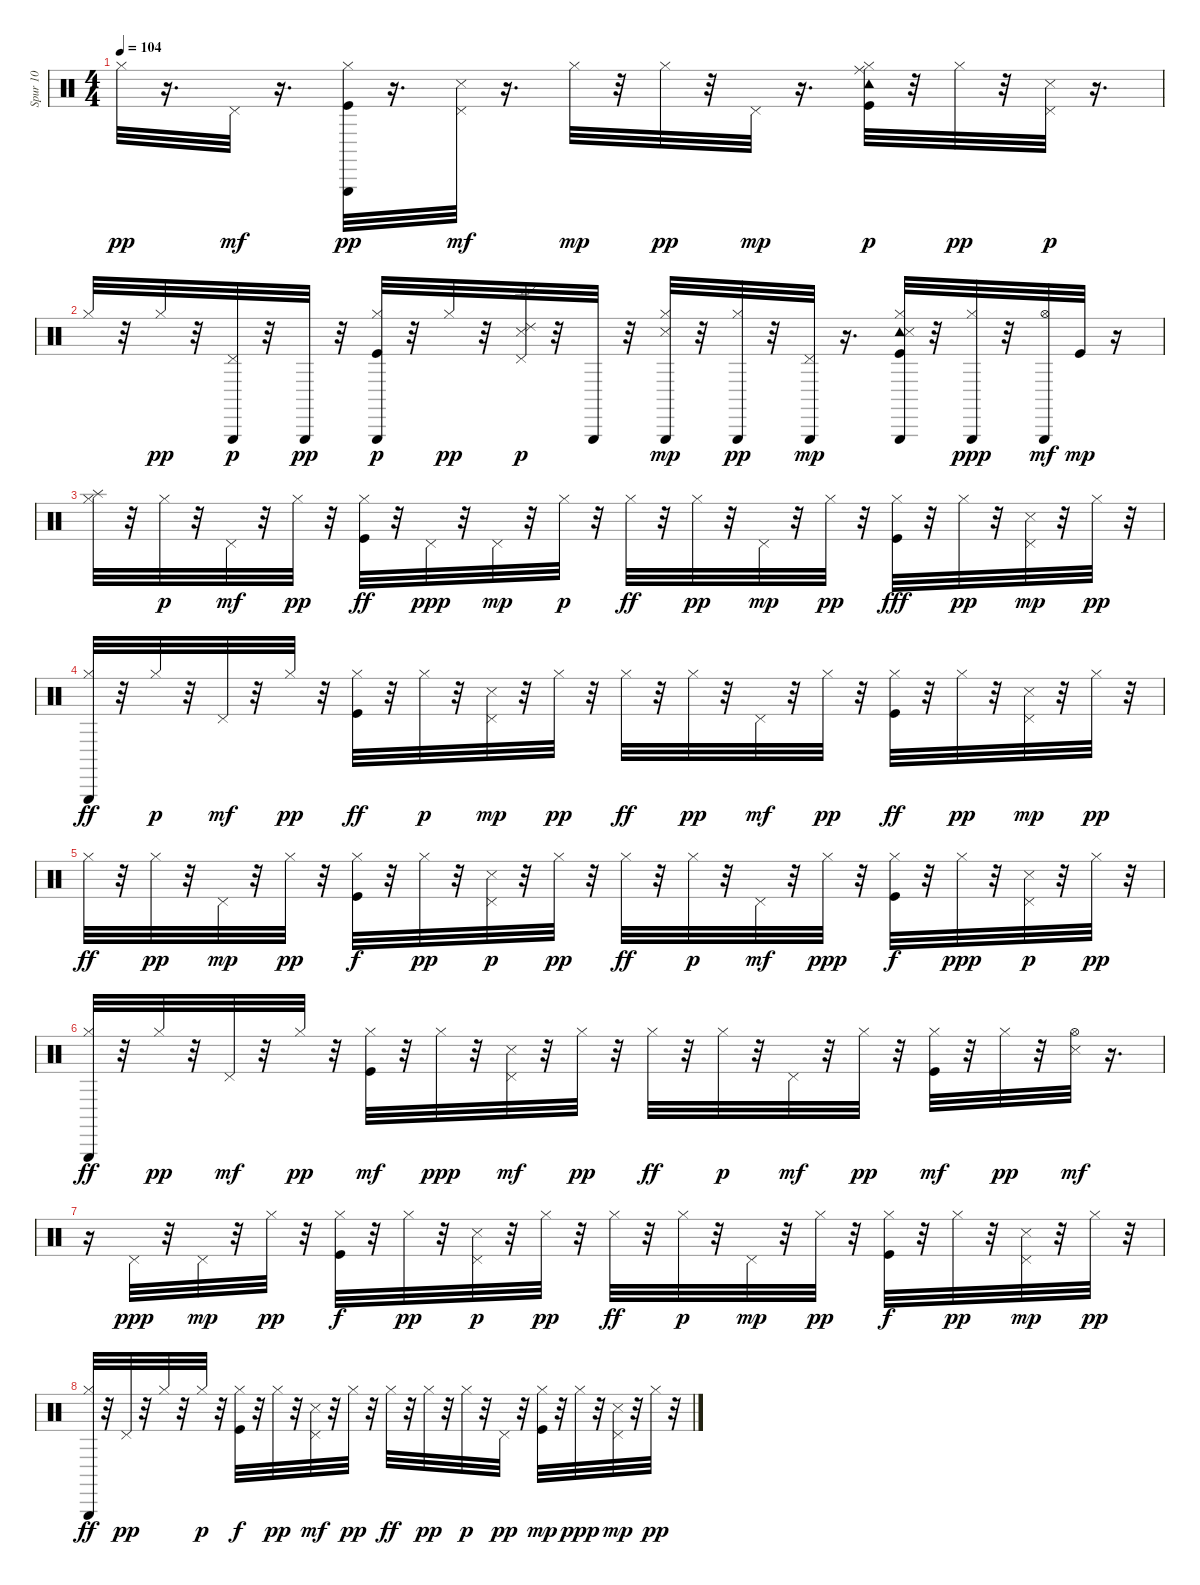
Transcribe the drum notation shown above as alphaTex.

\track ("Spur 10" "Spur 10") {instrument percussion}
\staff {score}
\articulation defaults
\ts (4 4)
\tempo 104
\clef neutral
\ks c "Hi-Hat (closed)".32{dy pp}
r.16{d} "Pedal Hi-Hat (hit)".32{dy mf} r.16{d} ("Triangle (hit)" "Kick (hit)" "Hi-Hat (closed)").32{dy pp} r.16{d} ("Snare (side stick) 3" "Pedal Hi-Hat (hit)").32{dy mf} r.16{d} "Hi-Hat (closed)".32{dy mp} r.32 "Hi-Hat (closed)".32{dy pp} r.32 "Pedal Hi-Hat (hit)".32{dy mp} r.16{d} ("Ride (middle)" "Tambourine (hit)" "Kick (hit)" "Hi-Hat (closed)").32{dy p} r.32 "Hi-Hat (closed)".32{dy pp} r.32 ("Pedal Hi-Hat (hit)" "Snare (side stick) 3").32{dy p} r.16{d} |
"Hi-Hat (closed)".32 r.32 "Hi-Hat (closed)".32{dy pp} r.32 ("Pedal Hi-Hat (hit)" "Triangle (hit)").32{dy p} r.32 "Triangle (hit)".32{dy pp} r.32 ("Kick (hit)" "Hi-Hat (closed)" "Triangle (hit)").32{dy p} r.32 "Hi-Hat (closed)".32{dy pp} r.32 ("Snare (side stick) 3" "Pedal Hi-Hat (hit)" "Ride (edge) 2").32{dy p} r.32 "Triangle (hit)".32 r.32 ("Triangle (hit)" "Snare (side stick) 3" "Hi-Hat (closed)").32{dy mp} r.32 ("Hi-Hat (closed)" "Triangle (hit)").32{dy pp} r.32 ("Pedal Hi-Hat (hit)" "Triangle (hit)").32{dy mp} r.16{d} ("Tambourine (hit)" "Snare (side stick) 3" "Kick (hit)" "Hi-Hat (closed)" "Triangle (hit)").32 r.32 ("Triangle (hit)" "Hi-Hat (closed)").32{dy ppp} r.32 ("Hi-Hat (open)" "Triangle (hit)").32{dy mf} "Kick (hit)".32{dy mp} r.16 |
("Hi-Hat (closed)" "Splash (hit)").32 r.32 "Hi-Hat (closed)".32{dy p} r.32 "Pedal Hi-Hat (hit)".32{dy mf} r.32 "Hi-Hat (closed)".32{dy pp} r.32 ("Kick (hit)" "Hi-Hat (closed)").32{dy ff} r.32 "Pedal Hi-Hat (hit)".32{dy ppp} r.32 "Pedal Hi-Hat (hit)".32{dy mp} r.32 "Hi-Hat (closed)".32{dy p} r.32 "Hi-Hat (closed)".32{dy ff} r.32 "Hi-Hat (closed)".32{dy pp} r.32 "Pedal Hi-Hat (hit)".32{dy mp} r.32 "Hi-Hat (closed)".32{dy pp} r.32 ("Kick (hit)" "Hi-Hat (closed)").32{dy fff} r.32 "Hi-Hat (closed)".32{dy pp} r.32 ("Snare (side stick) 3" "Pedal Hi-Hat (hit)").32{dy mp} r.32 "Hi-Hat (closed)".32{dy pp} r.32 |
("Triangle (hit)" "Hi-Hat (closed)").32{dy ff} r.32 "Hi-Hat (closed)".32{dy p} r.32 "Pedal Hi-Hat (hit)".32{dy mf} r.32 "Hi-Hat (closed)".32{dy pp} r.32 ("Kick (hit)" "Hi-Hat (closed)").32{dy ff} r.32 "Hi-Hat (closed)".32{dy p} r.32 ("Snare (side stick) 3" "Pedal Hi-Hat (hit)").32{dy mp} r.32 "Hi-Hat (closed)".32{dy pp} r.32 "Hi-Hat (closed)".32{dy ff} r.32 "Hi-Hat (closed)".32{dy pp} r.32 "Pedal Hi-Hat (hit)".32{dy mf} r.32 "Hi-Hat (closed)".32{dy pp} r.32 ("Kick (hit)" "Hi-Hat (closed)").32{dy ff} r.32 "Hi-Hat (closed)".32{dy pp} r.32 ("Snare (side stick) 3" "Pedal Hi-Hat (hit)").32{dy mp} r.32 "Hi-Hat (closed)".32{dy pp} r.32 |
"Hi-Hat (closed)".32{dy ff} r.32 "Hi-Hat (closed)".32{dy pp} r.32 "Pedal Hi-Hat (hit)".32{dy mp} r.32 "Hi-Hat (closed)".32{dy pp} r.32 ("Kick (hit)" "Hi-Hat (closed)").32{dy f} r.32 "Hi-Hat (closed)".32{dy pp} r.32 ("Snare (side stick) 3" "Pedal Hi-Hat (hit)").32{dy p} r.32 "Hi-Hat (closed)".32{dy pp} r.32 "Hi-Hat (closed)".32{dy ff} r.32 "Hi-Hat (closed)".32{dy p} r.32 "Pedal Hi-Hat (hit)".32{dy mf} r.32 "Hi-Hat (closed)".32{dy ppp} r.32 ("Kick (hit)" "Hi-Hat (closed)").32{dy f} r.32 "Hi-Hat (closed)".32{dy ppp} r.32 ("Snare (side stick) 3" "Pedal Hi-Hat (hit)").32{dy p} r.32 "Hi-Hat (closed)".32{dy pp} r.32 |
("Triangle (hit)" "Hi-Hat (closed)").32{dy ff} r.32 "Hi-Hat (closed)".32{dy pp} r.32 "Pedal Hi-Hat (hit)".32{dy mf} r.32 "Hi-Hat (closed)".32{dy pp} r.32 ("Kick (hit)" "Hi-Hat (closed)").32{dy mf} r.32 "Hi-Hat (closed)".32{dy ppp} r.32 ("Snare (side stick) 3" "Pedal Hi-Hat (hit)").32{dy mf} r.32 "Hi-Hat (closed)".32{dy pp} r.32 "Hi-Hat (closed)".32{dy ff} r.32 "Hi-Hat (closed)".32{dy p} r.32 "Pedal Hi-Hat (hit)".32{dy mf} r.32 "Hi-Hat (closed)".32{dy pp} r.32 ("Kick (hit)" "Hi-Hat (closed)").32{dy mf} r.32 "Hi-Hat (closed)".32{dy pp} r.32 ("Snare (side stick) 3" "Hi-Hat (open)").32{dy mf} r.16{d} |
r.16 "Pedal Hi-Hat (hit)".32{dy ppp} r.32 "Pedal Hi-Hat (hit)".32{dy mp} r.32 "Hi-Hat (closed)".32{dy pp} r.32 ("Kick (hit)" "Hi-Hat (closed)").32{dy f} r.32 "Hi-Hat (closed)".32{dy pp} r.32 ("Snare (side stick) 3" "Pedal Hi-Hat (hit)").32{dy p} r.32 "Hi-Hat (closed)".32{dy pp} r.32 "Hi-Hat (closed)".32{dy ff} r.32 "Hi-Hat (closed)".32{dy p} r.32 "Pedal Hi-Hat (hit)".32{dy mp} r.32 "Hi-Hat (closed)".32{dy pp} r.32 ("Kick (hit)" "Hi-Hat (closed)").32{dy f} r.32 "Hi-Hat (closed)".32{dy pp} r.32 ("Snare (side stick) 3" "Pedal Hi-Hat (hit)").32{dy mp} r.32 "Hi-Hat (closed)".32{dy pp} r.32 |
("Triangle (hit)" "Hi-Hat (closed)").32{dy ff} r.32 "Pedal Hi-Hat (hit)".32{dy pp} r.32 "Hi-Hat (closed)".32 r.32 "Hi-Hat (closed)".32{dy p} r.32 ("Kick (hit)" "Hi-Hat (closed)").32{dy f} r.32 "Hi-Hat (closed)".32{dy pp} r.32 ("Snare (side stick) 3" "Pedal Hi-Hat (hit)").32{dy mf} r.32 "Hi-Hat (closed)".32{dy pp} r.32 "Hi-Hat (closed)".32{dy ff} r.32 "Hi-Hat (closed)".32{dy pp} r.32 "Hi-Hat (closed)".32{dy p} r.32 "Pedal Hi-Hat (hit)".32{dy pp} r.32 ("Kick (hit)" "Hi-Hat (closed)").32{dy mp} r.32 "Hi-Hat (closed)".32{dy ppp} r.32 ("Snare (side stick) 3" "Pedal Hi-Hat (hit)").32{dy mp} r.32 "Hi-Hat (closed)".32{dy pp} r.32
